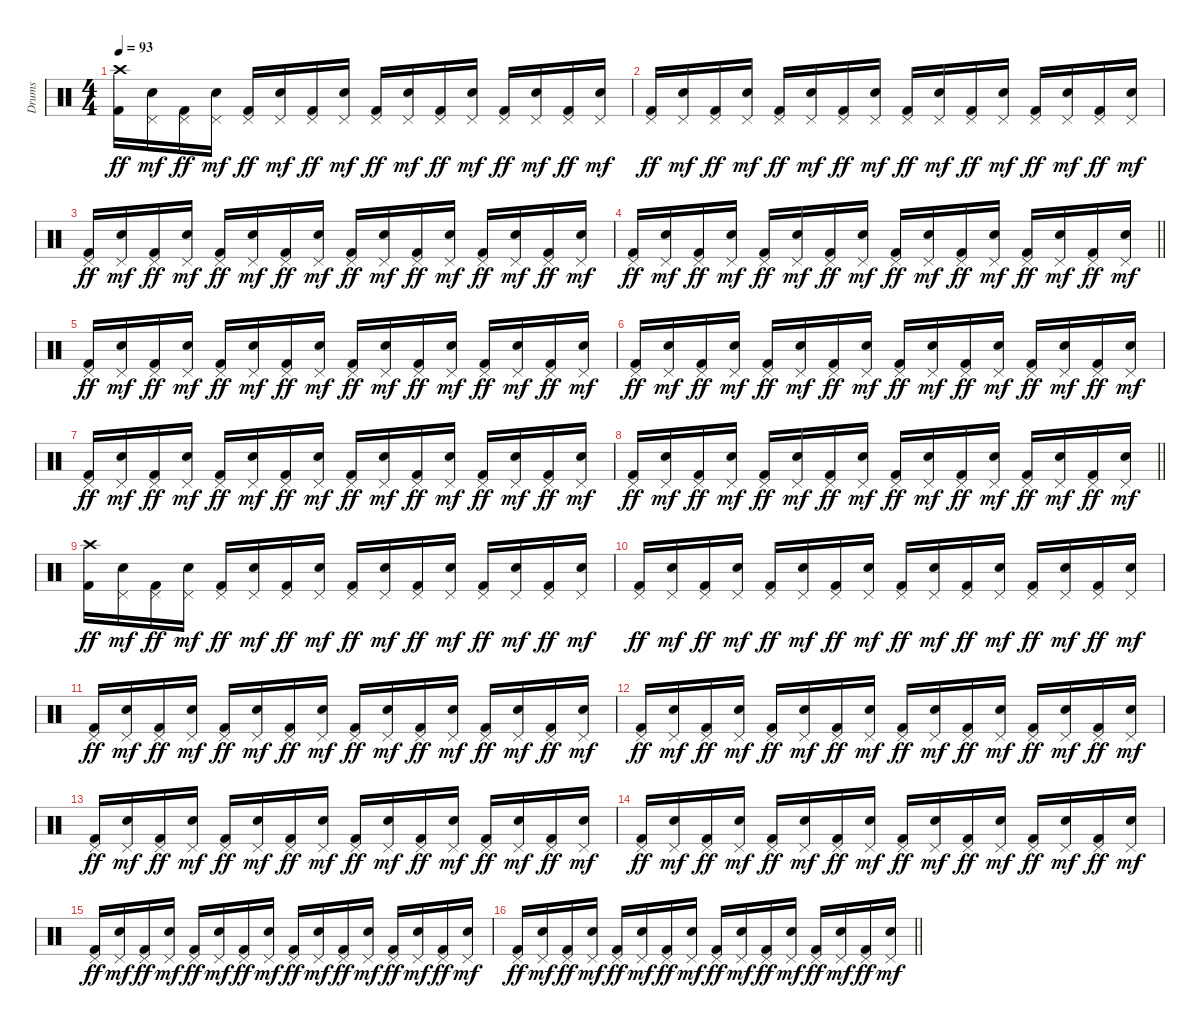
\track ("Drums" "Drums") {instrument percussion}
\staff {score}
\articulation defaults
\ts (4 4)
\tempo 93
\clef neutral
\ks c
("Crash high (hit)" "Kick (hit) 2").16{dy ff} ("Pedal Hi-Hat (hit)" "Electric Snare (hit)").16{dy mf} ("Pedal Hi-Hat (hit)" "Kick (hit) 2").16{dy ff} ("Pedal Hi-Hat (hit)" "Electric Snare (hit)").16{dy mf} ("Pedal Hi-Hat (hit)" "Kick (hit) 2").16{dy ff} ("Pedal Hi-Hat (hit)" "Electric Snare (hit)").16{dy mf} ("Pedal Hi-Hat (hit)" "Kick (hit) 2").16{dy ff} ("Pedal Hi-Hat (hit)" "Electric Snare (hit)").16{dy mf} ("Pedal Hi-Hat (hit)" "Kick (hit) 2").16{dy ff} ("Pedal Hi-Hat (hit)" "Electric Snare (hit)").16{dy mf} ("Pedal Hi-Hat (hit)" "Kick (hit) 2").16{dy ff} ("Pedal Hi-Hat (hit)" "Electric Snare (hit)").16{dy mf} ("Pedal Hi-Hat (hit)" "Kick (hit) 2").16{dy ff} ("Pedal Hi-Hat (hit)" "Electric Snare (hit)").16{dy mf} ("Pedal Hi-Hat (hit)" "Kick (hit) 2").16{dy ff} ("Pedal Hi-Hat (hit)" "Electric Snare (hit)").16{dy mf} |
("Pedal Hi-Hat (hit)" "Kick (hit) 2").16{dy ff} ("Pedal Hi-Hat (hit)" "Electric Snare (hit)").16{dy mf} ("Pedal Hi-Hat (hit)" "Kick (hit) 2").16{dy ff} ("Pedal Hi-Hat (hit)" "Electric Snare (hit)").16{dy mf} ("Pedal Hi-Hat (hit)" "Kick (hit) 2").16{dy ff} ("Pedal Hi-Hat (hit)" "Electric Snare (hit)").16{dy mf} ("Pedal Hi-Hat (hit)" "Kick (hit) 2").16{dy ff} ("Pedal Hi-Hat (hit)" "Electric Snare (hit)").16{dy mf} ("Pedal Hi-Hat (hit)" "Kick (hit) 2").16{dy ff} ("Pedal Hi-Hat (hit)" "Electric Snare (hit)").16{dy mf} ("Pedal Hi-Hat (hit)" "Kick (hit) 2").16{dy ff} ("Pedal Hi-Hat (hit)" "Electric Snare (hit)").16{dy mf} ("Pedal Hi-Hat (hit)" "Kick (hit) 2").16{dy ff} ("Pedal Hi-Hat (hit)" "Electric Snare (hit)").16{dy mf} ("Pedal Hi-Hat (hit)" "Kick (hit) 2").16{dy ff} ("Pedal Hi-Hat (hit)" "Electric Snare (hit)").16{dy mf} |
("Pedal Hi-Hat (hit)" "Kick (hit) 2").16{dy ff} ("Pedal Hi-Hat (hit)" "Electric Snare (hit)").16{dy mf} ("Pedal Hi-Hat (hit)" "Kick (hit) 2").16{dy ff} ("Pedal Hi-Hat (hit)" "Electric Snare (hit)").16{dy mf} ("Pedal Hi-Hat (hit)" "Kick (hit) 2").16{dy ff} ("Pedal Hi-Hat (hit)" "Electric Snare (hit)").16{dy mf} ("Pedal Hi-Hat (hit)" "Kick (hit) 2").16{dy ff} ("Pedal Hi-Hat (hit)" "Electric Snare (hit)").16{dy mf} ("Pedal Hi-Hat (hit)" "Kick (hit) 2").16{dy ff} ("Pedal Hi-Hat (hit)" "Electric Snare (hit)").16{dy mf} ("Pedal Hi-Hat (hit)" "Kick (hit) 2").16{dy ff} ("Pedal Hi-Hat (hit)" "Electric Snare (hit)").16{dy mf} ("Pedal Hi-Hat (hit)" "Kick (hit) 2").16{dy ff} ("Pedal Hi-Hat (hit)" "Electric Snare (hit)").16{dy mf} ("Pedal Hi-Hat (hit)" "Kick (hit) 2").16{dy ff} ("Pedal Hi-Hat (hit)" "Electric Snare (hit)").16{dy mf} |
\barLineRight lightlight
("Pedal Hi-Hat (hit)" "Kick (hit) 2").16{dy ff} ("Pedal Hi-Hat (hit)" "Electric Snare (hit)").16{dy mf} ("Pedal Hi-Hat (hit)" "Kick (hit) 2").16{dy ff} ("Pedal Hi-Hat (hit)" "Electric Snare (hit)").16{dy mf} ("Pedal Hi-Hat (hit)" "Kick (hit) 2").16{dy ff} ("Pedal Hi-Hat (hit)" "Electric Snare (hit)").16{dy mf} ("Pedal Hi-Hat (hit)" "Kick (hit) 2").16{dy ff} ("Pedal Hi-Hat (hit)" "Electric Snare (hit)").16{dy mf} ("Pedal Hi-Hat (hit)" "Kick (hit) 2").16{dy ff} ("Pedal Hi-Hat (hit)" "Electric Snare (hit)").16{dy mf} ("Pedal Hi-Hat (hit)" "Kick (hit) 2").16{dy ff} ("Pedal Hi-Hat (hit)" "Electric Snare (hit)").16{dy mf} ("Pedal Hi-Hat (hit)" "Kick (hit) 2").16{dy ff} ("Pedal Hi-Hat (hit)" "Electric Snare (hit)").16{dy mf} ("Pedal Hi-Hat (hit)" "Kick (hit) 2").16{dy ff} ("Pedal Hi-Hat (hit)" "Electric Snare (hit)").16{dy mf} |
("Pedal Hi-Hat (hit)" "Kick (hit) 2").16{dy ff} ("Pedal Hi-Hat (hit)" "Electric Snare (hit)").16{dy mf} ("Pedal Hi-Hat (hit)" "Kick (hit) 2").16{dy ff} ("Pedal Hi-Hat (hit)" "Electric Snare (hit)").16{dy mf} ("Pedal Hi-Hat (hit)" "Kick (hit) 2").16{dy ff} ("Pedal Hi-Hat (hit)" "Electric Snare (hit)").16{dy mf} ("Pedal Hi-Hat (hit)" "Kick (hit) 2").16{dy ff} ("Pedal Hi-Hat (hit)" "Electric Snare (hit)").16{dy mf} ("Pedal Hi-Hat (hit)" "Kick (hit) 2").16{dy ff} ("Pedal Hi-Hat (hit)" "Electric Snare (hit)").16{dy mf} ("Pedal Hi-Hat (hit)" "Kick (hit) 2").16{dy ff} ("Pedal Hi-Hat (hit)" "Electric Snare (hit)").16{dy mf} ("Pedal Hi-Hat (hit)" "Kick (hit) 2").16{dy ff} ("Pedal Hi-Hat (hit)" "Electric Snare (hit)").16{dy mf} ("Pedal Hi-Hat (hit)" "Kick (hit) 2").16{dy ff} ("Pedal Hi-Hat (hit)" "Electric Snare (hit)").16{dy mf} |
("Pedal Hi-Hat (hit)" "Kick (hit) 2").16{dy ff} ("Pedal Hi-Hat (hit)" "Electric Snare (hit)").16{dy mf} ("Pedal Hi-Hat (hit)" "Kick (hit) 2").16{dy ff} ("Pedal Hi-Hat (hit)" "Electric Snare (hit)").16{dy mf} ("Pedal Hi-Hat (hit)" "Kick (hit) 2").16{dy ff} ("Pedal Hi-Hat (hit)" "Electric Snare (hit)").16{dy mf} ("Pedal Hi-Hat (hit)" "Kick (hit) 2").16{dy ff} ("Pedal Hi-Hat (hit)" "Electric Snare (hit)").16{dy mf} ("Pedal Hi-Hat (hit)" "Kick (hit) 2").16{dy ff} ("Pedal Hi-Hat (hit)" "Electric Snare (hit)").16{dy mf} ("Pedal Hi-Hat (hit)" "Kick (hit) 2").16{dy ff} ("Pedal Hi-Hat (hit)" "Electric Snare (hit)").16{dy mf} ("Pedal Hi-Hat (hit)" "Kick (hit) 2").16{dy ff} ("Pedal Hi-Hat (hit)" "Electric Snare (hit)").16{dy mf} ("Pedal Hi-Hat (hit)" "Kick (hit) 2").16{dy ff} ("Pedal Hi-Hat (hit)" "Electric Snare (hit)").16{dy mf} |
("Pedal Hi-Hat (hit)" "Kick (hit) 2").16{dy ff} ("Pedal Hi-Hat (hit)" "Electric Snare (hit)").16{dy mf} ("Pedal Hi-Hat (hit)" "Kick (hit) 2").16{dy ff} ("Pedal Hi-Hat (hit)" "Electric Snare (hit)").16{dy mf} ("Pedal Hi-Hat (hit)" "Kick (hit) 2").16{dy ff} ("Pedal Hi-Hat (hit)" "Electric Snare (hit)").16{dy mf} ("Pedal Hi-Hat (hit)" "Kick (hit) 2").16{dy ff} ("Pedal Hi-Hat (hit)" "Electric Snare (hit)").16{dy mf} ("Pedal Hi-Hat (hit)" "Kick (hit) 2").16{dy ff} ("Pedal Hi-Hat (hit)" "Electric Snare (hit)").16{dy mf} ("Pedal Hi-Hat (hit)" "Kick (hit) 2").16{dy ff} ("Pedal Hi-Hat (hit)" "Electric Snare (hit)").16{dy mf} ("Pedal Hi-Hat (hit)" "Kick (hit) 2").16{dy ff} ("Pedal Hi-Hat (hit)" "Electric Snare (hit)").16{dy mf} ("Pedal Hi-Hat (hit)" "Kick (hit) 2").16{dy ff} ("Pedal Hi-Hat (hit)" "Electric Snare (hit)").16{dy mf} |
\barLineRight lightlight
("Pedal Hi-Hat (hit)" "Kick (hit) 2").16{dy ff} ("Pedal Hi-Hat (hit)" "Electric Snare (hit)").16{dy mf} ("Pedal Hi-Hat (hit)" "Kick (hit) 2").16{dy ff} ("Pedal Hi-Hat (hit)" "Electric Snare (hit)").16{dy mf} ("Pedal Hi-Hat (hit)" "Kick (hit) 2").16{dy ff} ("Pedal Hi-Hat (hit)" "Electric Snare (hit)").16{dy mf} ("Pedal Hi-Hat (hit)" "Kick (hit) 2").16{dy ff} ("Pedal Hi-Hat (hit)" "Electric Snare (hit)").16{dy mf} ("Pedal Hi-Hat (hit)" "Kick (hit) 2").16{dy ff} ("Pedal Hi-Hat (hit)" "Electric Snare (hit)").16{dy mf} ("Pedal Hi-Hat (hit)" "Kick (hit) 2").16{dy ff} ("Pedal Hi-Hat (hit)" "Electric Snare (hit)").16{dy mf} ("Pedal Hi-Hat (hit)" "Kick (hit) 2").16{dy ff} ("Pedal Hi-Hat (hit)" "Electric Snare (hit)").16{dy mf} ("Pedal Hi-Hat (hit)" "Kick (hit) 2").16{dy ff} ("Pedal Hi-Hat (hit)" "Electric Snare (hit)").16{dy mf} |
("Crash high (hit)" "Kick (hit) 2").16{dy ff} ("Pedal Hi-Hat (hit)" "Electric Snare (hit)").16{dy mf} ("Pedal Hi-Hat (hit)" "Kick (hit) 2").16{dy ff} ("Pedal Hi-Hat (hit)" "Electric Snare (hit)").16{dy mf} ("Pedal Hi-Hat (hit)" "Kick (hit) 2").16{dy ff} ("Pedal Hi-Hat (hit)" "Electric Snare (hit)").16{dy mf} ("Pedal Hi-Hat (hit)" "Kick (hit) 2").16{dy ff} ("Pedal Hi-Hat (hit)" "Electric Snare (hit)").16{dy mf} ("Pedal Hi-Hat (hit)" "Kick (hit) 2").16{dy ff} ("Pedal Hi-Hat (hit)" "Electric Snare (hit)").16{dy mf} ("Pedal Hi-Hat (hit)" "Kick (hit) 2").16{dy ff} ("Pedal Hi-Hat (hit)" "Electric Snare (hit)").16{dy mf} ("Pedal Hi-Hat (hit)" "Kick (hit) 2").16{dy ff} ("Pedal Hi-Hat (hit)" "Electric Snare (hit)").16{dy mf} ("Pedal Hi-Hat (hit)" "Kick (hit) 2").16{dy ff} ("Pedal Hi-Hat (hit)" "Electric Snare (hit)").16{dy mf} |
("Pedal Hi-Hat (hit)" "Kick (hit) 2").16{dy ff} ("Pedal Hi-Hat (hit)" "Electric Snare (hit)").16{dy mf} ("Pedal Hi-Hat (hit)" "Kick (hit) 2").16{dy ff} ("Pedal Hi-Hat (hit)" "Electric Snare (hit)").16{dy mf} ("Pedal Hi-Hat (hit)" "Kick (hit) 2").16{dy ff} ("Pedal Hi-Hat (hit)" "Electric Snare (hit)").16{dy mf} ("Pedal Hi-Hat (hit)" "Kick (hit) 2").16{dy ff} ("Pedal Hi-Hat (hit)" "Electric Snare (hit)").16{dy mf} ("Pedal Hi-Hat (hit)" "Kick (hit) 2").16{dy ff} ("Pedal Hi-Hat (hit)" "Electric Snare (hit)").16{dy mf} ("Pedal Hi-Hat (hit)" "Kick (hit) 2").16{dy ff} ("Pedal Hi-Hat (hit)" "Electric Snare (hit)").16{dy mf} ("Pedal Hi-Hat (hit)" "Kick (hit) 2").16{dy ff} ("Pedal Hi-Hat (hit)" "Electric Snare (hit)").16{dy mf} ("Pedal Hi-Hat (hit)" "Kick (hit) 2").16{dy ff} ("Pedal Hi-Hat (hit)" "Electric Snare (hit)").16{dy mf} |
("Pedal Hi-Hat (hit)" "Kick (hit) 2").16{dy ff} ("Pedal Hi-Hat (hit)" "Electric Snare (hit)").16{dy mf} ("Pedal Hi-Hat (hit)" "Kick (hit) 2").16{dy ff} ("Pedal Hi-Hat (hit)" "Electric Snare (hit)").16{dy mf} ("Pedal Hi-Hat (hit)" "Kick (hit) 2").16{dy ff} ("Pedal Hi-Hat (hit)" "Electric Snare (hit)").16{dy mf} ("Pedal Hi-Hat (hit)" "Kick (hit) 2").16{dy ff} ("Pedal Hi-Hat (hit)" "Electric Snare (hit)").16{dy mf} ("Pedal Hi-Hat (hit)" "Kick (hit) 2").16{dy ff} ("Pedal Hi-Hat (hit)" "Electric Snare (hit)").16{dy mf} ("Pedal Hi-Hat (hit)" "Kick (hit) 2").16{dy ff} ("Pedal Hi-Hat (hit)" "Electric Snare (hit)").16{dy mf} ("Pedal Hi-Hat (hit)" "Kick (hit) 2").16{dy ff} ("Pedal Hi-Hat (hit)" "Electric Snare (hit)").16{dy mf} ("Pedal Hi-Hat (hit)" "Kick (hit) 2").16{dy ff} ("Pedal Hi-Hat (hit)" "Electric Snare (hit)").16{dy mf} |
("Pedal Hi-Hat (hit)" "Kick (hit) 2").16{dy ff} ("Pedal Hi-Hat (hit)" "Electric Snare (hit)").16{dy mf} ("Pedal Hi-Hat (hit)" "Kick (hit) 2").16{dy ff} ("Pedal Hi-Hat (hit)" "Electric Snare (hit)").16{dy mf} ("Pedal Hi-Hat (hit)" "Kick (hit) 2").16{dy ff} ("Pedal Hi-Hat (hit)" "Electric Snare (hit)").16{dy mf} ("Pedal Hi-Hat (hit)" "Kick (hit) 2").16{dy ff} ("Pedal Hi-Hat (hit)" "Electric Snare (hit)").16{dy mf} ("Pedal Hi-Hat (hit)" "Kick (hit) 2").16{dy ff} ("Pedal Hi-Hat (hit)" "Electric Snare (hit)").16{dy mf} ("Pedal Hi-Hat (hit)" "Kick (hit) 2").16{dy ff} ("Pedal Hi-Hat (hit)" "Electric Snare (hit)").16{dy mf} ("Pedal Hi-Hat (hit)" "Kick (hit) 2").16{dy ff} ("Pedal Hi-Hat (hit)" "Electric Snare (hit)").16{dy mf} ("Pedal Hi-Hat (hit)" "Kick (hit) 2").16{dy ff} ("Pedal Hi-Hat (hit)" "Electric Snare (hit)").16{dy mf} |
("Pedal Hi-Hat (hit)" "Kick (hit) 2").16{dy ff} ("Pedal Hi-Hat (hit)" "Electric Snare (hit)").16{dy mf} ("Pedal Hi-Hat (hit)" "Kick (hit) 2").16{dy ff} ("Pedal Hi-Hat (hit)" "Electric Snare (hit)").16{dy mf} ("Pedal Hi-Hat (hit)" "Kick (hit) 2").16{dy ff} ("Pedal Hi-Hat (hit)" "Electric Snare (hit)").16{dy mf} ("Pedal Hi-Hat (hit)" "Kick (hit) 2").16{dy ff} ("Pedal Hi-Hat (hit)" "Electric Snare (hit)").16{dy mf} ("Pedal Hi-Hat (hit)" "Kick (hit) 2").16{dy ff} ("Pedal Hi-Hat (hit)" "Electric Snare (hit)").16{dy mf} ("Pedal Hi-Hat (hit)" "Kick (hit) 2").16{dy ff} ("Pedal Hi-Hat (hit)" "Electric Snare (hit)").16{dy mf} ("Pedal Hi-Hat (hit)" "Kick (hit) 2").16{dy ff} ("Pedal Hi-Hat (hit)" "Electric Snare (hit)").16{dy mf} ("Pedal Hi-Hat (hit)" "Kick (hit) 2").16{dy ff} ("Pedal Hi-Hat (hit)" "Electric Snare (hit)").16{dy mf} |
("Pedal Hi-Hat (hit)" "Kick (hit) 2").16{dy ff} ("Pedal Hi-Hat (hit)" "Electric Snare (hit)").16{dy mf} ("Pedal Hi-Hat (hit)" "Kick (hit) 2").16{dy ff} ("Pedal Hi-Hat (hit)" "Electric Snare (hit)").16{dy mf} ("Pedal Hi-Hat (hit)" "Kick (hit) 2").16{dy ff} ("Pedal Hi-Hat (hit)" "Electric Snare (hit)").16{dy mf} ("Pedal Hi-Hat (hit)" "Kick (hit) 2").16{dy ff} ("Pedal Hi-Hat (hit)" "Electric Snare (hit)").16{dy mf} ("Pedal Hi-Hat (hit)" "Kick (hit) 2").16{dy ff} ("Pedal Hi-Hat (hit)" "Electric Snare (hit)").16{dy mf} ("Pedal Hi-Hat (hit)" "Kick (hit) 2").16{dy ff} ("Pedal Hi-Hat (hit)" "Electric Snare (hit)").16{dy mf} ("Pedal Hi-Hat (hit)" "Kick (hit) 2").16{dy ff} ("Pedal Hi-Hat (hit)" "Electric Snare (hit)").16{dy mf} ("Pedal Hi-Hat (hit)" "Kick (hit) 2").16{dy ff} ("Pedal Hi-Hat (hit)" "Electric Snare (hit)").16{dy mf} |
("Pedal Hi-Hat (hit)" "Kick (hit) 2").16{dy ff} ("Pedal Hi-Hat (hit)" "Electric Snare (hit)").16{dy mf} ("Pedal Hi-Hat (hit)" "Kick (hit) 2").16{dy ff} ("Pedal Hi-Hat (hit)" "Electric Snare (hit)").16{dy mf} ("Pedal Hi-Hat (hit)" "Kick (hit) 2").16{dy ff} ("Pedal Hi-Hat (hit)" "Electric Snare (hit)").16{dy mf} ("Pedal Hi-Hat (hit)" "Kick (hit) 2").16{dy ff} ("Pedal Hi-Hat (hit)" "Electric Snare (hit)").16{dy mf} ("Pedal Hi-Hat (hit)" "Kick (hit) 2").16{dy ff} ("Pedal Hi-Hat (hit)" "Electric Snare (hit)").16{dy mf} ("Pedal Hi-Hat (hit)" "Kick (hit) 2").16{dy ff} ("Pedal Hi-Hat (hit)" "Electric Snare (hit)").16{dy mf} ("Pedal Hi-Hat (hit)" "Kick (hit) 2").16{dy ff} ("Pedal Hi-Hat (hit)" "Electric Snare (hit)").16{dy mf} ("Pedal Hi-Hat (hit)" "Kick (hit) 2").16{dy ff} ("Pedal Hi-Hat (hit)" "Electric Snare (hit)").16{dy mf} |
\barLineRight lightlight
("Pedal Hi-Hat (hit)" "Kick (hit) 2").16{dy ff} ("Pedal Hi-Hat (hit)" "Electric Snare (hit)").16{dy mf} ("Pedal Hi-Hat (hit)" "Kick (hit) 2").16{dy ff} ("Pedal Hi-Hat (hit)" "Electric Snare (hit)").16{dy mf} ("Pedal Hi-Hat (hit)" "Kick (hit) 2").16{dy ff} ("Pedal Hi-Hat (hit)" "Electric Snare (hit)").16{dy mf} ("Pedal Hi-Hat (hit)" "Kick (hit) 2").16{dy ff} ("Pedal Hi-Hat (hit)" "Electric Snare (hit)").16{dy mf} ("Pedal Hi-Hat (hit)" "Kick (hit) 2").16{dy ff} ("Pedal Hi-Hat (hit)" "Electric Snare (hit)").16{dy mf} ("Pedal Hi-Hat (hit)" "Kick (hit) 2").16{dy ff} ("Pedal Hi-Hat (hit)" "Electric Snare (hit)").16{dy mf} ("Pedal Hi-Hat (hit)" "Kick (hit) 2").16{dy ff} ("Pedal Hi-Hat (hit)" "Electric Snare (hit)").16{dy mf} ("Pedal Hi-Hat (hit)" "Kick (hit) 2").16{dy ff} ("Pedal Hi-Hat (hit)" "Electric Snare (hit)").16{dy mf}
